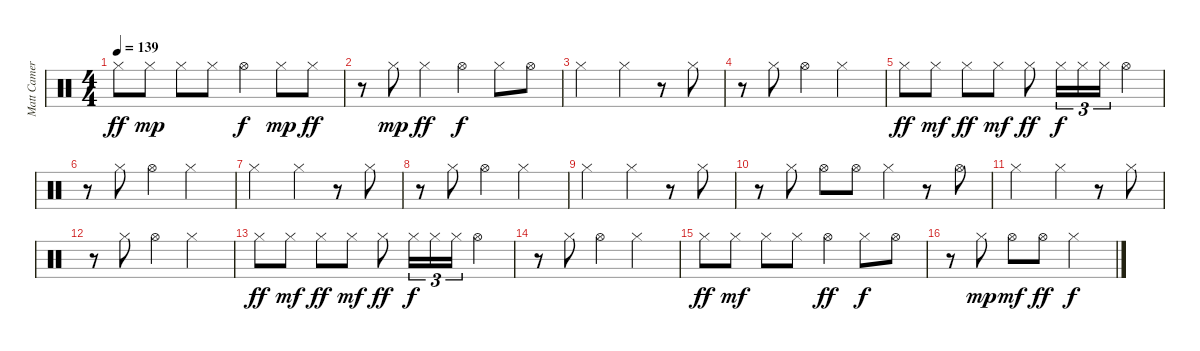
\track ("Matt Cameron" "Matt Camer") {instrument percussion}
\staff {score}
\articulation defaults
\ts (4 4)
\tempo 139
\clef neutral
\ks c "Hi-Hat (closed)".8{dy ff} "Hi-Hat (closed)".8{dy mp} "Hi-Hat (closed)".8 "Hi-Hat (closed)".8 "Hi-Hat (open)".4{dy f} "Hi-Hat (closed)".8{dy mp} "Hi-Hat (closed)".8{dy ff}
|
r.8 "Hi-Hat (closed)".8{dy mp} "Hi-Hat (closed)".4{dy ff} "Hi-Hat (open)".4{dy f} "Hi-Hat (closed)".8 "Hi-Hat (open)".8 |
"Hi-Hat (closed)".2 "Hi-Hat (closed)".4 r.8 "Hi-Hat (closed)".8 |
r.8 "Hi-Hat (closed)".8 "Hi-Hat (open)".4 "Hi-Hat (closed)".2 |
"Hi-Hat (closed)".8{dy ff} "Hi-Hat (closed)".8{dy mf} "Hi-Hat (closed)".8{dy ff} "Hi-Hat (closed)".8{dy mf} "Hi-Hat (closed)".8{dy ff} "Hi-Hat (closed)".16{tu (3 2) dy f} "Hi-Hat (closed)".16{tu (3 2)} "Hi-Hat (closed)".16{tu (3 2)} "Hi-Hat (open)".4 |
r.8 "Hi-Hat (closed)".8 "Hi-Hat (open)".4 "Hi-Hat (closed)".2 |
"Hi-Hat (closed)".2 "Hi-Hat (closed)".4 r.8 "Hi-Hat (closed)".8 |
r.8 "Hi-Hat (closed)".8 "Hi-Hat (open)".4 "Hi-Hat (closed)".2 |
"Hi-Hat (closed)".2 "Hi-Hat (closed)".4 r.8 "Hi-Hat (closed)".8 |
r.8 "Hi-Hat (closed)".8 "Hi-Hat (open)".8 "Hi-Hat (open)".8 "Hi-Hat (closed)".4 r.8 "Hi-Hat (open)".8 |
"Hi-Hat (closed)".2 "Hi-Hat (closed)".4 r.8 "Hi-Hat (closed)".8 |
r.8 "Hi-Hat (closed)".8 "Hi-Hat (open)".4 "Hi-Hat (closed)".2 |
"Hi-Hat (closed)".8{dy ff} "Hi-Hat (closed)".8{dy mf} "Hi-Hat (closed)".8{dy ff} "Hi-Hat (closed)".8{dy mf} "Hi-Hat (closed)".8{dy ff} "Hi-Hat (closed)".16{tu (3 2) dy f} "Hi-Hat (closed)".16{tu (3 2)} "Hi-Hat (closed)".16{tu (3 2)} "Hi-Hat (open)".4 |
r.8 "Hi-Hat (closed)".8 "Hi-Hat (open)".4 "Hi-Hat (closed)".2 |
"Hi-Hat (closed)".8{dy ff} "Hi-Hat (closed)".8{dy mf} "Hi-Hat (closed)".8 "Hi-Hat (closed)".8 "Hi-Hat (open)".4{dy ff} "Hi-Hat (closed)".8{dy f} "Hi-Hat (open)".8 |
r.8 "Hi-Hat (closed)".8{dy mp} "Hi-Hat (open)".8{dy mf} "Hi-Hat (open)".8{dy ff} "Hi-Hat (closed)".2{dy f}
